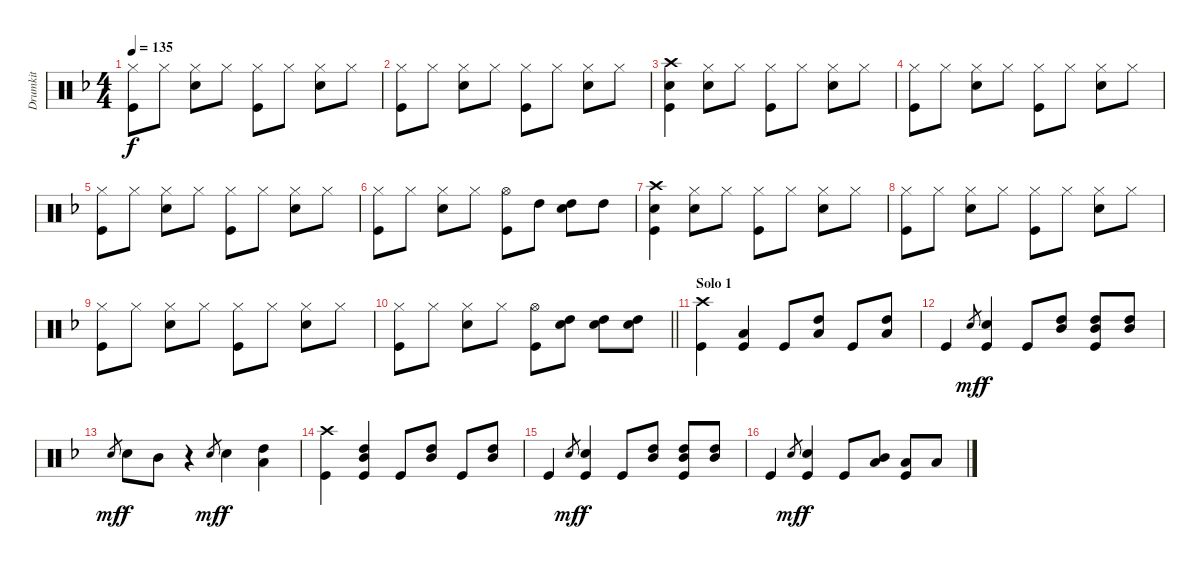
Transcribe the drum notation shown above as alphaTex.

\track ("Drumkit" "Drumkit") {instrument percussion}
\staff {score}
\articulation defaults
\ts (4 4)
\tempo 135
\clef neutral
\ks f
("Hi-Hat (closed)" "Kick (hit)").8{dy f} "Hi-Hat (closed)".8 ("Hi-Hat (closed)" "Snare (hit) 2").8 "Hi-Hat (closed)".8 ("Hi-Hat (closed)" "Kick (hit)").8 "Hi-Hat (closed)".8 ("Hi-Hat (closed)" "Snare (hit) 2").8 "Hi-Hat (closed)".8 |
("Hi-Hat (closed)" "Kick (hit)").8 "Hi-Hat (closed)".8 ("Hi-Hat (closed)" "Snare (hit) 2").8 "Hi-Hat (closed)".8 ("Hi-Hat (closed)" "Kick (hit)").8 "Hi-Hat (closed)".8 ("Hi-Hat (closed)" "Snare (hit) 2").8 "Hi-Hat (closed)".8 |
("Crash high (hit)" "Snare (hit) 2" "Kick (hit)").4 ("Hi-Hat (closed)" "Snare (hit) 2").8 "Hi-Hat (closed)".8 ("Hi-Hat (closed)" "Kick (hit)").8 "Hi-Hat (closed)".8 ("Hi-Hat (closed)" "Snare (hit) 2").8 "Hi-Hat (closed)".8 |
("Hi-Hat (closed)" "Kick (hit)").8 "Hi-Hat (closed)".8 ("Hi-Hat (closed)" "Snare (hit) 2").8 "Hi-Hat (closed)".8 ("Hi-Hat (closed)" "Kick (hit)").8 "Hi-Hat (closed)".8 ("Hi-Hat (closed)" "Snare (hit) 2").8 "Hi-Hat (closed)".8 |
("Hi-Hat (closed)" "Kick (hit)").8 "Hi-Hat (closed)".8 ("Hi-Hat (closed)" "Snare (hit) 2").8 "Hi-Hat (closed)".8 ("Hi-Hat (closed)" "Kick (hit)").8 "Hi-Hat (closed)".8 ("Hi-Hat (closed)" "Snare (hit) 2").8 "Hi-Hat (closed)".8 |
("Hi-Hat (closed)" "Kick (hit)").8 "Hi-Hat (closed)".8 ("Hi-Hat (closed)" "Snare (hit) 2").8 "Hi-Hat (closed)".8 ("Hi-Hat (open)" "Kick (hit)").8 "High Tom (hit)".8 ("High Tom (hit)" "Snare (hit) 2").8 "High Tom (hit)".8 |
("Crash high (hit)" "Snare (hit) 2" "Kick (hit)").4 ("Hi-Hat (closed)" "Snare (hit) 2").8 "Hi-Hat (closed)".8 ("Hi-Hat (closed)" "Kick (hit)").8 "Hi-Hat (closed)".8 ("Hi-Hat (closed)" "Snare (hit) 2").8 "Hi-Hat (closed)".8 |
("Hi-Hat (closed)" "Kick (hit)").8 "Hi-Hat (closed)".8 ("Hi-Hat (closed)" "Snare (hit) 2").8 "Hi-Hat (closed)".8 ("Hi-Hat (closed)" "Kick (hit)").8 "Hi-Hat (closed)".8 ("Hi-Hat (closed)" "Snare (hit) 2").8 "Hi-Hat (closed)".8 |
("Hi-Hat (closed)" "Kick (hit)").8 "Hi-Hat (closed)".8 ("Hi-Hat (closed)" "Snare (hit) 2").8 "Hi-Hat (closed)".8 ("Hi-Hat (closed)" "Kick (hit)").8 "Hi-Hat (closed)".8 ("Hi-Hat (closed)" "Snare (hit) 2").8 "Hi-Hat (closed)".8 |
\barLineRight lightlight
("Hi-Hat (closed)" "Kick (hit)").8 "Hi-Hat (closed)".8 ("Hi-Hat (closed)" "Snare (hit) 2").8 "Hi-Hat (closed)".8 ("Hi-Hat (open)" "Kick (hit)").8 ("High Tom (hit)" "Snare (hit) 2").8 ("High Tom (hit)" "Snare (hit) 2").8 ("High Tom (hit)" "Snare (hit) 2").8 |
\section ("" "Solo 1")
("Crash high (hit)" "Kick (hit)").4 ("Low Tom (hit)" "Kick (hit)").4 "Kick (hit)".8 ("High Tom (hit)" "Low Tom (hit)").8 "Kick (hit)".8 ("High Tom (hit)" "Low Tom (hit)").8 |
"Kick (hit)".4 "Snare (hit)".8{gr dy mf} ("Snare (hit) 2" "Kick (hit)").4{dy f} "Kick (hit)".8 ("High Tom (hit)" "Mid Tom (hit)").8 ("High Tom (hit)" "Mid Tom (hit)" "Kick (hit)").8 ("High Tom (hit)" "Mid Tom (hit)").8 |
"Snare (hit)".8{gr dy mf} "Snare (hit) 2".8{dy f} "Mid Tom (hit)".8 r.4 "Snare (hit)".8{gr dy mf} "Snare (hit) 2".4{dy f} ("High Tom (hit)" "Low Tom (hit)").4 |
("Crash high (hit)" "Kick (hit)").4 ("High Tom (hit)" "Mid Tom (hit)" "Kick (hit)").4 "Kick (hit)".8 ("High Tom (hit)" "Mid Tom (hit)").8 "Kick (hit)".8 ("High Tom (hit)" "Mid Tom (hit)").8 |
"Kick (hit)".4 "Snare (hit)".8{gr dy mf} ("Snare (hit) 2" "Kick (hit)").4{dy f} "Kick (hit)".8 ("High Tom (hit)" "Mid Tom (hit)").8 ("High Tom (hit)" "Mid Tom (hit)" "Kick (hit)").8 ("High Tom (hit)" "Mid Tom (hit)").8 |
"Kick (hit)".4 "Snare (hit)".8{gr dy mf} ("Snare (hit) 2" "Kick (hit)").4{dy f} "Kick (hit)".8 ("Mid Tom (hit)" "Low Tom (hit)").8 ("Low Tom (hit)" "Kick (hit)").8 "Low Tom (hit)".8
